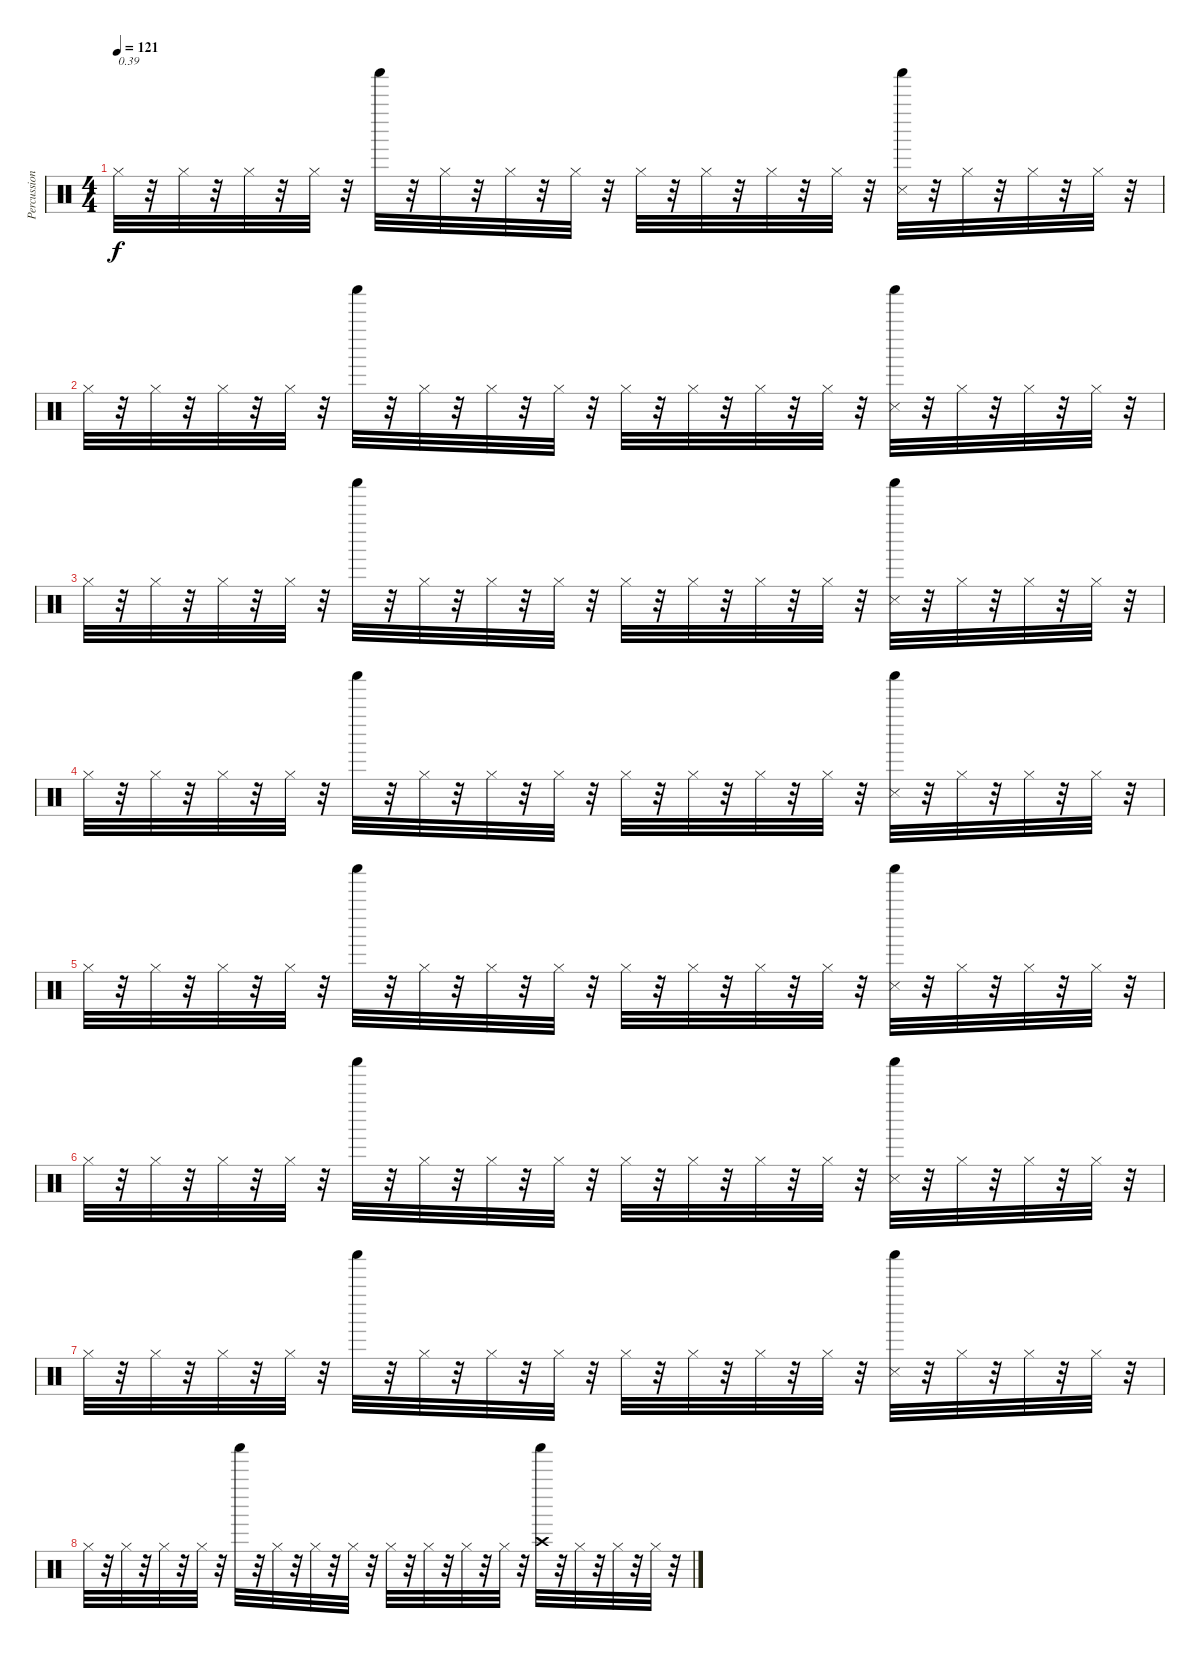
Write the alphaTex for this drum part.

\track ("Percussions" "Percussion") {instrument percussion}
\staff {score}
\articulation defaults
\ts (4 4)
\tempo 121
\clef neutral
\ks c "Hi-Hat (closed)".32{txt "0.39" dy f}
r.32 "Hi-Hat (closed)".32 r.32 "Hi-Hat (closed)".32 r.32 "Hi-Hat (closed)".32 r.32 "Shaker (hit)".32 r.32 "Hi-Hat (closed)".32 r.32 "Hi-Hat (closed)".32 r.32 "Hi-Hat (closed)".32 r.32 "Hi-Hat (closed)".32 r.32 "Hi-Hat (closed)".32 r.32 "Hi-Hat (closed)".32 r.32 "Hi-Hat (closed)".32 r.32 ("Shaker (hit)" "Snare (side stick) 3").32 r.32 "Hi-Hat (closed)".32 r.32 "Hi-Hat (closed)".32 r.32 "Hi-Hat (closed)".32 r.32 |
"Hi-Hat (closed)".32 r.32 "Hi-Hat (closed)".32 r.32 "Hi-Hat (closed)".32 r.32 "Hi-Hat (closed)".32 r.32 "Shaker (hit)".32 r.32 "Hi-Hat (closed)".32 r.32 "Hi-Hat (closed)".32 r.32 "Hi-Hat (closed)".32 r.32 "Hi-Hat (closed)".32 r.32 "Hi-Hat (closed)".32 r.32 "Hi-Hat (closed)".32 r.32 "Hi-Hat (closed)".32 r.32 ("Shaker (hit)" "Snare (side stick) 3").32 r.32 "Hi-Hat (closed)".32 r.32 "Hi-Hat (closed)".32 r.32 "Hi-Hat (closed)".32 r.32 |
"Hi-Hat (closed)".32 r.32 "Hi-Hat (closed)".32 r.32 "Hi-Hat (closed)".32 r.32 "Hi-Hat (closed)".32 r.32 "Shaker (hit)".32 r.32 "Hi-Hat (closed)".32 r.32 "Hi-Hat (closed)".32 r.32 "Hi-Hat (closed)".32 r.32 "Hi-Hat (closed)".32 r.32 "Hi-Hat (closed)".32 r.32 "Hi-Hat (closed)".32 r.32 "Hi-Hat (closed)".32 r.32 ("Shaker (hit)" "Snare (side stick) 3").32 r.32 "Hi-Hat (closed)".32 r.32 "Hi-Hat (closed)".32 r.32 "Hi-Hat (closed)".32 r.32 |
"Hi-Hat (closed)".32 r.32 "Hi-Hat (closed)".32 r.32 "Hi-Hat (closed)".32 r.32 "Hi-Hat (closed)".32 r.32 "Shaker (hit)".32 r.32 "Hi-Hat (closed)".32 r.32 "Hi-Hat (closed)".32 r.32 "Hi-Hat (closed)".32 r.32 "Hi-Hat (closed)".32 r.32 "Hi-Hat (closed)".32 r.32 "Hi-Hat (closed)".32 r.32 "Hi-Hat (closed)".32 r.32 ("Shaker (hit)" "Snare (side stick) 3").32 r.32 "Hi-Hat (closed)".32 r.32 "Hi-Hat (closed)".32 r.32 "Hi-Hat (closed)".32 r.32 |
"Hi-Hat (closed)".32 r.32 "Hi-Hat (closed)".32 r.32 "Hi-Hat (closed)".32 r.32 "Hi-Hat (closed)".32 r.32 "Shaker (hit)".32 r.32 "Hi-Hat (closed)".32 r.32 "Hi-Hat (closed)".32 r.32 "Hi-Hat (closed)".32 r.32 "Hi-Hat (closed)".32 r.32 "Hi-Hat (closed)".32 r.32 "Hi-Hat (closed)".32 r.32 "Hi-Hat (closed)".32 r.32 ("Shaker (hit)" "Snare (side stick) 3").32 r.32 "Hi-Hat (closed)".32 r.32 "Hi-Hat (closed)".32 r.32 "Hi-Hat (closed)".32 r.32 |
"Hi-Hat (closed)".32 r.32 "Hi-Hat (closed)".32 r.32 "Hi-Hat (closed)".32 r.32 "Hi-Hat (closed)".32 r.32 "Shaker (hit)".32 r.32 "Hi-Hat (closed)".32 r.32 "Hi-Hat (closed)".32 r.32 "Hi-Hat (closed)".32 r.32 "Hi-Hat (closed)".32 r.32 "Hi-Hat (closed)".32 r.32 "Hi-Hat (closed)".32 r.32 "Hi-Hat (closed)".32 r.32 ("Shaker (hit)" "Snare (side stick) 3").32 r.32 "Hi-Hat (closed)".32 r.32 "Hi-Hat (closed)".32 r.32 "Hi-Hat (closed)".32 r.32 |
"Hi-Hat (closed)".32 r.32 "Hi-Hat (closed)".32 r.32 "Hi-Hat (closed)".32 r.32 "Hi-Hat (closed)".32 r.32 "Shaker (hit)".32 r.32 "Hi-Hat (closed)".32 r.32 "Hi-Hat (closed)".32 r.32 "Hi-Hat (closed)".32 r.32 "Hi-Hat (closed)".32 r.32 "Hi-Hat (closed)".32 r.32 "Hi-Hat (closed)".32 r.32 "Hi-Hat (closed)".32 r.32 ("Shaker (hit)" "Snare (side stick) 3").32 r.32 "Hi-Hat (closed)".32 r.32 "Hi-Hat (closed)".32 r.32 "Hi-Hat (closed)".32 r.32 |
"Hi-Hat (closed)".32 r.32 "Hi-Hat (closed)".32 r.32 "Hi-Hat (closed)".32 r.32 "Hi-Hat (closed)".32 r.32 "Shaker (hit)".32 r.32 "Hi-Hat (closed)".32 r.32 "Hi-Hat (closed)".32 r.32 "Hi-Hat (closed)".32 r.32 "Hi-Hat (closed)".32 r.32 "Hi-Hat (closed)".32 r.32 "Hi-Hat (closed)".32 r.32 "Hi-Hat (closed)".32 r.32 ("Shaker (hit)" "Crash high (hit)").32 r.32 "Hi-Hat (closed)".32 r.32 "Hi-Hat (closed)".32 r.32 "Hi-Hat (closed)".32 r.32
